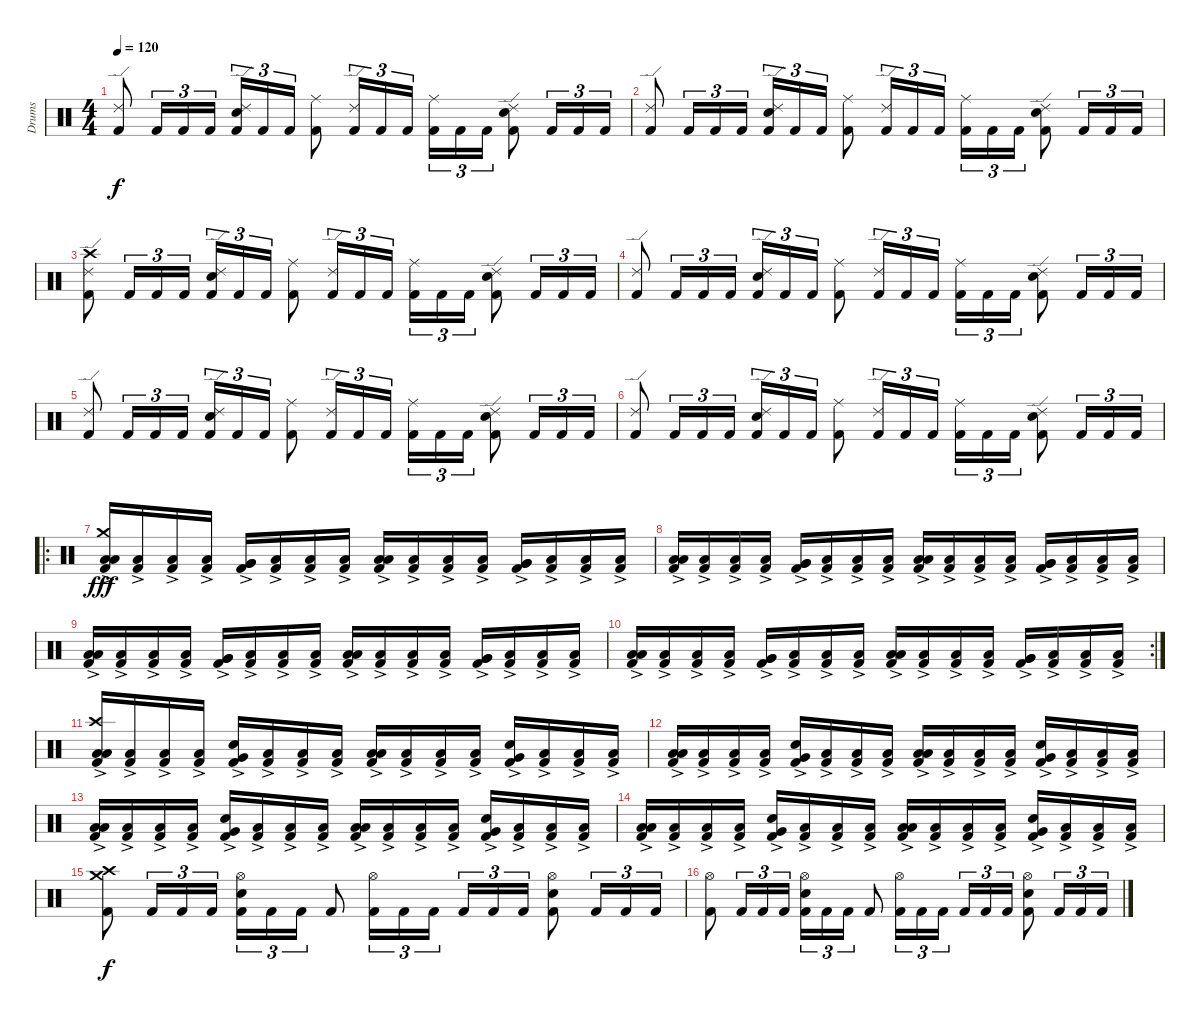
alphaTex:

\track ("Drums" "Drums") {instrument percussion}
\staff {score}
\articulation defaults
\ts (4 4)
\tempo 120
\clef neutral
\ks c
("Ride (edge) 2" "Kick (hit) 2").8{dy f} "Kick (hit) 2".16{tu (3 2)} "Kick (hit) 2".16{tu (3 2)} "Kick (hit) 2".16{tu (3 2)} ("Ride (edge) 2" "Electric Snare (hit)" "Kick (hit) 2").16{tu (3 2)} "Kick (hit) 2".16{tu (3 2)} "Kick (hit) 2".16{tu (3 2)} ("Ride (middle)" "Kick (hit) 2").8 ("Ride (edge) 2" "Kick (hit) 2").16{tu (3 2)} "Kick (hit) 2".16{tu (3 2)} "Kick (hit) 2".16{tu (3 2)} ("Ride (middle)" "Kick (hit) 2").16{tu (3 2)} "Kick (hit) 2".16{tu (3 2)} "Kick (hit) 2".16{tu (3 2)} ("Ride (edge) 2" "Electric Snare (hit)" "Kick (hit) 2").8 "Kick (hit) 2".16{tu (3 2)} "Kick (hit) 2".16{tu (3 2)} "Kick (hit) 2".16{tu (3 2)} |
("Ride (edge) 2" "Kick (hit) 2").8 "Kick (hit) 2".16{tu (3 2)} "Kick (hit) 2".16{tu (3 2)} "Kick (hit) 2".16{tu (3 2)} ("Ride (edge) 2" "Electric Snare (hit)" "Kick (hit) 2").16{tu (3 2)} "Kick (hit) 2".16{tu (3 2)} "Kick (hit) 2".16{tu (3 2)} ("Ride (middle)" "Kick (hit) 2").8 ("Ride (edge) 2" "Kick (hit) 2").16{tu (3 2)} "Kick (hit) 2".16{tu (3 2)} "Kick (hit) 2".16{tu (3 2)} ("Ride (middle)" "Kick (hit) 2").16{tu (3 2)} "Kick (hit) 2".16{tu (3 2)} "Kick (hit) 2".16{tu (3 2)} ("Ride (edge) 2" "Electric Snare (hit)" "Kick (hit) 2").8 "Kick (hit) 2".16{tu (3 2)} "Kick (hit) 2".16{tu (3 2)} "Kick (hit) 2".16{tu (3 2)} |
("Crash high (hit)" "Ride (edge) 2" "Kick (hit) 2").8 "Kick (hit) 2".16{tu (3 2)} "Kick (hit) 2".16{tu (3 2)} "Kick (hit) 2".16{tu (3 2)} ("Ride (edge) 2" "Electric Snare (hit)" "Kick (hit) 2").16{tu (3 2)} "Kick (hit) 2".16{tu (3 2)} "Kick (hit) 2".16{tu (3 2)} ("Ride (middle)" "Kick (hit) 2").8 ("Ride (edge) 2" "Kick (hit) 2").16{tu (3 2)} "Kick (hit) 2".16{tu (3 2)} "Kick (hit) 2".16{tu (3 2)} ("Ride (middle)" "Kick (hit) 2").16{tu (3 2)} "Kick (hit) 2".16{tu (3 2)} "Kick (hit) 2".16{tu (3 2)} ("Ride (edge) 2" "Electric Snare (hit)" "Kick (hit) 2").8 "Kick (hit) 2".16{tu (3 2)} "Kick (hit) 2".16{tu (3 2)} "Kick (hit) 2".16{tu (3 2)} |
("Ride (edge) 2" "Kick (hit) 2").8 "Kick (hit) 2".16{tu (3 2)} "Kick (hit) 2".16{tu (3 2)} "Kick (hit) 2".16{tu (3 2)} ("Ride (edge) 2" "Electric Snare (hit)" "Kick (hit) 2").16{tu (3 2)} "Kick (hit) 2".16{tu (3 2)} "Kick (hit) 2".16{tu (3 2)} ("Ride (middle)" "Kick (hit) 2").8 ("Ride (edge) 2" "Kick (hit) 2").16{tu (3 2)} "Kick (hit) 2".16{tu (3 2)} "Kick (hit) 2".16{tu (3 2)} ("Ride (middle)" "Kick (hit) 2").16{tu (3 2)} "Kick (hit) 2".16{tu (3 2)} "Kick (hit) 2".16{tu (3 2)} ("Ride (edge) 2" "Electric Snare (hit)" "Kick (hit) 2").8 "Kick (hit) 2".16{tu (3 2)} "Kick (hit) 2".16{tu (3 2)} "Kick (hit) 2".16{tu (3 2)} |
("Ride (edge) 2" "Kick (hit) 2").8 "Kick (hit) 2".16{tu (3 2)} "Kick (hit) 2".16{tu (3 2)} "Kick (hit) 2".16{tu (3 2)} ("Ride (edge) 2" "Electric Snare (hit)" "Kick (hit) 2").16{tu (3 2)} "Kick (hit) 2".16{tu (3 2)} "Kick (hit) 2".16{tu (3 2)} ("Ride (middle)" "Kick (hit) 2").8 ("Ride (edge) 2" "Kick (hit) 2").16{tu (3 2)} "Kick (hit) 2".16{tu (3 2)} "Kick (hit) 2".16{tu (3 2)} ("Ride (middle)" "Kick (hit) 2").16{tu (3 2)} "Kick (hit) 2".16{tu (3 2)} "Kick (hit) 2".16{tu (3 2)} ("Ride (edge) 2" "Electric Snare (hit)" "Kick (hit) 2").8 "Kick (hit) 2".16{tu (3 2)} "Kick (hit) 2".16{tu (3 2)} "Kick (hit) 2".16{tu (3 2)} |
("Ride (edge) 2" "Kick (hit) 2").8 "Kick (hit) 2".16{tu (3 2)} "Kick (hit) 2".16{tu (3 2)} "Kick (hit) 2".16{tu (3 2)} ("Ride (edge) 2" "Electric Snare (hit)" "Kick (hit) 2").16{tu (3 2)} "Kick (hit) 2".16{tu (3 2)} "Kick (hit) 2".16{tu (3 2)} ("Ride (middle)" "Kick (hit) 2").8 ("Ride (edge) 2" "Kick (hit) 2").16{tu (3 2)} "Kick (hit) 2".16{tu (3 2)} "Kick (hit) 2".16{tu (3 2)} ("Ride (middle)" "Kick (hit) 2").16{tu (3 2)} "Kick (hit) 2".16{tu (3 2)} "Kick (hit) 2".16{tu (3 2)} ("Ride (edge) 2" "Electric Snare (hit)" "Kick (hit) 2").8 "Kick (hit) 2".16{tu (3 2)} "Kick (hit) 2".16{tu (3 2)} "Kick (hit) 2".16{tu (3 2)} |
\ro
("Crash medium (hit)" "Low Floor Tom (hit)"{ac} "Low Floor Tom (hit)"{ac} "Kick (hit) 2").16{dy fff} ("Low Floor Tom (hit)"{ac} "Kick (hit) 2").16 ("Low Floor Tom (hit)"{ac} "Kick (hit) 2").16 ("Low Floor Tom (hit)"{ac} "Kick (hit) 2").16 ("Very Low Tom (hit)"{ac} "Very Low Tom (hit)"{ac} "Kick (hit) 2").16 ("Low Floor Tom (hit)"{ac} "Kick (hit) 2").16 ("Low Floor Tom (hit)"{ac} "Kick (hit) 2").16 ("Low Floor Tom (hit)"{ac} "Kick (hit) 2").16 ("Low Floor Tom (hit)"{ac} "Low Floor Tom (hit)"{ac} "Kick (hit) 2").16 ("Low Floor Tom (hit)"{ac} "Kick (hit) 2").16 ("Low Floor Tom (hit)"{ac} "Kick (hit) 2").16 ("Low Floor Tom (hit)"{ac} "Kick (hit) 2").16 ("Very Low Tom (hit)"{ac} "Very Low Tom (hit)"{ac} "Kick (hit) 2").16 ("Low Floor Tom (hit)"{ac} "Kick (hit) 2").16 ("Low Floor Tom (hit)"{ac} "Kick (hit) 2").16 ("Low Floor Tom (hit)"{ac} "Kick (hit) 2").16 |
("Low Floor Tom (hit)"{ac} "Low Floor Tom (hit)"{ac} "Kick (hit) 2").16 ("Low Floor Tom (hit)"{ac} "Kick (hit) 2").16 ("Low Floor Tom (hit)"{ac} "Kick (hit) 2").16 ("Low Floor Tom (hit)"{ac} "Kick (hit) 2").16 ("Very Low Tom (hit)"{ac} "Very Low Tom (hit)"{ac} "Kick (hit) 2").16 ("Low Floor Tom (hit)"{ac} "Kick (hit) 2").16 ("Low Floor Tom (hit)"{ac} "Kick (hit) 2").16 ("Low Floor Tom (hit)"{ac} "Kick (hit) 2").16 ("Low Floor Tom (hit)"{ac} "Low Floor Tom (hit)"{ac} "Kick (hit) 2").16 ("Low Floor Tom (hit)"{ac} "Kick (hit) 2").16 ("Low Floor Tom (hit)"{ac} "Kick (hit) 2").16 ("Low Floor Tom (hit)"{ac} "Kick (hit) 2").16 ("Very Low Tom (hit)"{ac} "Very Low Tom (hit)"{ac} "Kick (hit) 2").16 ("Low Floor Tom (hit)"{ac} "Kick (hit) 2").16 ("Low Floor Tom (hit)"{ac} "Kick (hit) 2").16 ("Low Floor Tom (hit)"{ac} "Kick (hit) 2").16 |
("Low Floor Tom (hit)"{ac} "Low Floor Tom (hit)"{ac} "Kick (hit) 2").16 ("Low Floor Tom (hit)"{ac} "Kick (hit) 2").16 ("Low Floor Tom (hit)"{ac} "Kick (hit) 2").16 ("Low Floor Tom (hit)"{ac} "Kick (hit) 2").16 ("Very Low Tom (hit)"{ac} "Very Low Tom (hit)"{ac} "Kick (hit) 2").16 ("Low Floor Tom (hit)"{ac} "Kick (hit) 2").16 ("Low Floor Tom (hit)"{ac} "Kick (hit) 2").16 ("Low Floor Tom (hit)"{ac} "Kick (hit) 2").16 ("Low Floor Tom (hit)"{ac} "Low Floor Tom (hit)"{ac} "Kick (hit) 2").16 ("Low Floor Tom (hit)"{ac} "Kick (hit) 2").16 ("Low Floor Tom (hit)"{ac} "Kick (hit) 2").16 ("Low Floor Tom (hit)"{ac} "Kick (hit) 2").16 ("Very Low Tom (hit)"{ac} "Very Low Tom (hit)"{ac} "Kick (hit) 2").16 ("Low Floor Tom (hit)"{ac} "Kick (hit) 2").16 ("Low Floor Tom (hit)"{ac} "Kick (hit) 2").16 ("Low Floor Tom (hit)"{ac} "Kick (hit) 2").16 |
\rc 2
("Low Floor Tom (hit)"{ac} "Low Floor Tom (hit)"{ac} "Kick (hit) 2").16 ("Low Floor Tom (hit)"{ac} "Kick (hit) 2").16 ("Low Floor Tom (hit)"{ac} "Kick (hit) 2").16 ("Low Floor Tom (hit)"{ac} "Kick (hit) 2").16 ("Very Low Tom (hit)"{ac} "Very Low Tom (hit)"{ac} "Kick (hit) 2").16 ("Low Floor Tom (hit)"{ac} "Kick (hit) 2").16 ("Low Floor Tom (hit)"{ac} "Kick (hit) 2").16 ("Low Floor Tom (hit)"{ac} "Kick (hit) 2").16 ("Low Floor Tom (hit)"{ac} "Low Floor Tom (hit)"{ac} "Kick (hit) 2").16 ("Low Floor Tom (hit)"{ac} "Kick (hit) 2").16 ("Low Floor Tom (hit)"{ac} "Kick (hit) 2").16 ("Low Floor Tom (hit)"{ac} "Kick (hit) 2").16 ("Very Low Tom (hit)"{ac} "Very Low Tom (hit)"{ac} "Kick (hit) 2").16 ("Low Floor Tom (hit)"{ac} "Kick (hit) 2").16 ("Low Floor Tom (hit)"{ac} "Kick (hit) 2").16 ("Low Floor Tom (hit)"{ac} "Kick (hit) 2").16 |
("Crash high (hit)" "Low Floor Tom (hit)"{ac} "Low Floor Tom (hit)"{ac} "Kick (hit) 2").16 ("Low Floor Tom (hit)"{ac} "Kick (hit) 2").16 ("Low Floor Tom (hit)"{ac} "Kick (hit) 2").16 ("Low Floor Tom (hit)"{ac} "Kick (hit) 2").16 ("Very Low Tom (hit)"{ac} "Electric Snare (hit)" "Kick (hit) 2").16 ("Low Floor Tom (hit)"{ac} "Kick (hit) 2").16 ("Low Floor Tom (hit)"{ac} "Kick (hit) 2").16 ("Low Floor Tom (hit)"{ac} "Kick (hit) 2").16 ("Low Floor Tom (hit)"{ac} "Low Floor Tom (hit)"{ac} "Kick (hit) 2").16 ("Low Floor Tom (hit)"{ac} "Kick (hit) 2").16 ("Low Floor Tom (hit)"{ac} "Kick (hit) 2").16 ("Low Floor Tom (hit)"{ac} "Kick (hit) 2").16 ("Very Low Tom (hit)"{ac} "Electric Snare (hit)" "Kick (hit) 2").16 ("Low Floor Tom (hit)"{ac} "Kick (hit) 2").16 ("Low Floor Tom (hit)"{ac} "Kick (hit) 2").16 ("Low Floor Tom (hit)"{ac} "Kick (hit) 2").16 |
("Low Floor Tom (hit)"{ac} "Low Floor Tom (hit)"{ac} "Kick (hit) 2").16 ("Low Floor Tom (hit)"{ac} "Kick (hit) 2").16 ("Low Floor Tom (hit)"{ac} "Kick (hit) 2").16 ("Low Floor Tom (hit)"{ac} "Kick (hit) 2").16 ("Very Low Tom (hit)"{ac} "Electric Snare (hit)" "Kick (hit) 2").16 ("Low Floor Tom (hit)"{ac} "Kick (hit) 2").16 ("Low Floor Tom (hit)"{ac} "Kick (hit) 2").16 ("Low Floor Tom (hit)"{ac} "Kick (hit) 2").16 ("Low Floor Tom (hit)"{ac} "Low Floor Tom (hit)"{ac} "Kick (hit) 2").16 ("Low Floor Tom (hit)"{ac} "Kick (hit) 2").16 ("Low Floor Tom (hit)"{ac} "Kick (hit) 2").16 ("Low Floor Tom (hit)"{ac} "Kick (hit) 2").16 ("Very Low Tom (hit)"{ac} "Electric Snare (hit)" "Kick (hit) 2").16 ("Low Floor Tom (hit)"{ac} "Kick (hit) 2").16 ("Low Floor Tom (hit)"{ac} "Kick (hit) 2").16 ("Low Floor Tom (hit)"{ac} "Kick (hit) 2").16 |
("Low Floor Tom (hit)"{ac} "Low Floor Tom (hit)"{ac} "Kick (hit) 2").16 ("Low Floor Tom (hit)"{ac} "Kick (hit) 2").16 ("Low Floor Tom (hit)"{ac} "Kick (hit) 2").16 ("Low Floor Tom (hit)"{ac} "Kick (hit) 2").16 ("Very Low Tom (hit)"{ac} "Electric Snare (hit)" "Kick (hit) 2").16 ("Low Floor Tom (hit)"{ac} "Kick (hit) 2").16 ("Low Floor Tom (hit)"{ac} "Kick (hit) 2").16 ("Low Floor Tom (hit)"{ac} "Kick (hit) 2").16 ("Low Floor Tom (hit)"{ac} "Low Floor Tom (hit)"{ac} "Kick (hit) 2").16 ("Low Floor Tom (hit)"{ac} "Kick (hit) 2").16 ("Low Floor Tom (hit)"{ac} "Kick (hit) 2").16 ("Low Floor Tom (hit)"{ac} "Kick (hit) 2").16 ("Very Low Tom (hit)"{ac} "Electric Snare (hit)" "Kick (hit) 2").16 ("Low Floor Tom (hit)"{ac} "Kick (hit) 2").16 ("Low Floor Tom (hit)"{ac} "Kick (hit) 2").16 ("Low Floor Tom (hit)"{ac} "Kick (hit) 2").16 |
("Low Floor Tom (hit)"{ac} "Low Floor Tom (hit)"{ac} "Kick (hit) 2").16 ("Low Floor Tom (hit)"{ac} "Kick (hit) 2").16 ("Low Floor Tom (hit)"{ac} "Kick (hit) 2").16 ("Low Floor Tom (hit)"{ac} "Kick (hit) 2").16 ("Very Low Tom (hit)"{ac} "Electric Snare (hit)" "Kick (hit) 2").16 ("Low Floor Tom (hit)"{ac} "Kick (hit) 2").16 ("Low Floor Tom (hit)"{ac} "Kick (hit) 2").16 ("Low Floor Tom (hit)"{ac} "Kick (hit) 2").16 ("Low Floor Tom (hit)"{ac} "Low Floor Tom (hit)"{ac} "Kick (hit) 2").16 ("Low Floor Tom (hit)"{ac} "Kick (hit) 2").16 ("Low Floor Tom (hit)"{ac} "Kick (hit) 2").16 ("Low Floor Tom (hit)"{ac} "Kick (hit) 2").16 ("Very Low Tom (hit)"{ac} "Electric Snare (hit)" "Kick (hit) 2").16 ("Low Floor Tom (hit)"{ac} "Kick (hit) 2").16 ("Low Floor Tom (hit)"{ac} "Kick (hit) 2").16 ("Low Floor Tom (hit)"{ac} "Kick (hit) 2").16 |
("Crash medium (hit)" "Crash high (hit)" "Kick (hit) 2").8{dy f} "Kick (hit) 2".16{tu (3 2)} "Kick (hit) 2".16{tu (3 2)} "Kick (hit) 2".16{tu (3 2)} ("Hi-Hat (open)" "Electric Snare (hit)" "Kick (hit) 2").16{tu (3 2)} "Kick (hit) 2".16{tu (3 2)} "Kick (hit) 2".16{tu (3 2)} "Kick (hit) 2".8 ("Hi-Hat (open)" "Kick (hit) 2").16{tu (3 2)} "Kick (hit) 2".16{tu (3 2)} "Kick (hit) 2".16{tu (3 2)} "Kick (hit) 2".16{tu (3 2)} "Kick (hit) 2".16{tu (3 2)} "Kick (hit) 2".16{tu (3 2)} ("Hi-Hat (open)" "Electric Snare (hit)" "Kick (hit) 2").8 "Kick (hit) 2".16{tu (3 2)} "Kick (hit) 2".16{tu (3 2)} "Kick (hit) 2".16{tu (3 2)} |
("Hi-Hat (open)" "Kick (hit) 2").8 "Kick (hit) 2".16{tu (3 2)} "Kick (hit) 2".16{tu (3 2)} "Kick (hit) 2".16{tu (3 2)} ("Hi-Hat (open)" "Electric Snare (hit)" "Kick (hit) 2").16{tu (3 2)} "Kick (hit) 2".16{tu (3 2)} "Kick (hit) 2".16{tu (3 2)} "Kick (hit) 2".8 ("Hi-Hat (open)" "Kick (hit) 2").16{tu (3 2)} "Kick (hit) 2".16{tu (3 2)} "Kick (hit) 2".16{tu (3 2)} "Kick (hit) 2".16{tu (3 2)} "Kick (hit) 2".16{tu (3 2)} "Kick (hit) 2".16{tu (3 2)} ("Hi-Hat (open)" "Electric Snare (hit)" "Kick (hit) 2").8 "Kick (hit) 2".16{tu (3 2)} "Kick (hit) 2".16{tu (3 2)} "Kick (hit) 2".16{tu (3 2)}
